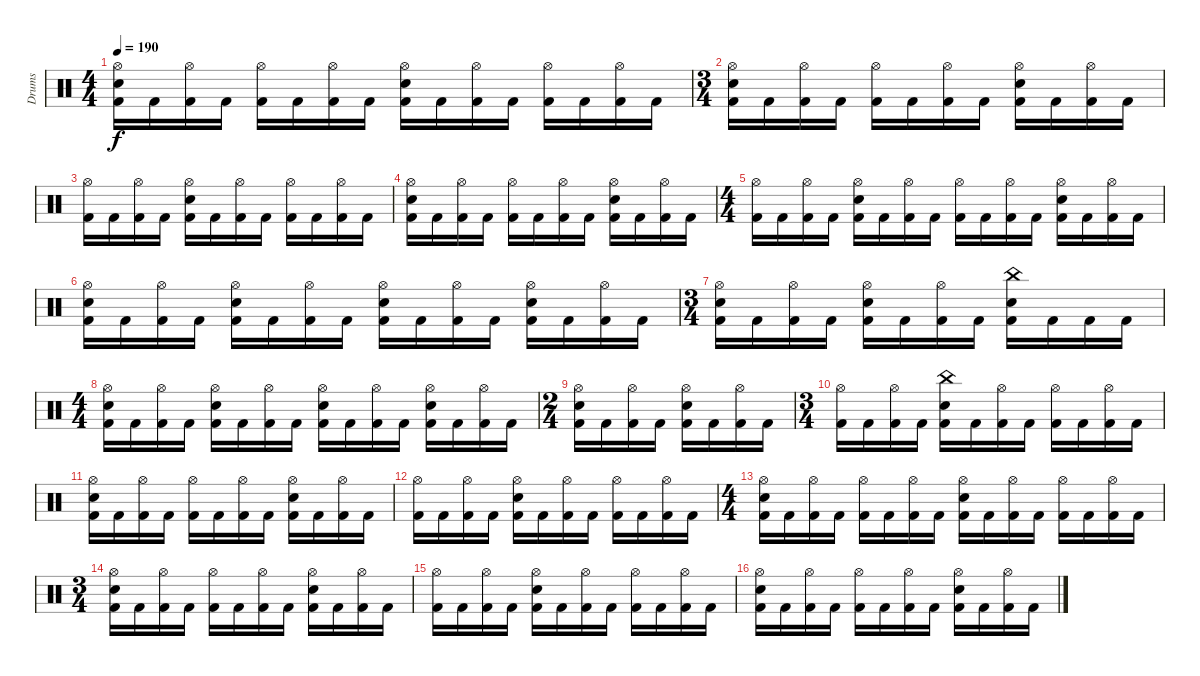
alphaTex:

\track ("Drums" "Drums") {instrument percussion}
\staff {score}
\articulation defaults
\ts (4 4)
\tempo 190
\clef neutral
\ks c
("Hi-Hat (open)" "Electric Snare (hit)" "Kick (hit) 2").16{dy f} "Kick (hit) 2".16 ("Hi-Hat (open)" "Kick (hit) 2").16 "Kick (hit) 2".16 ("Hi-Hat (open)" "Kick (hit) 2").16 "Kick (hit) 2".16 ("Hi-Hat (open)" "Kick (hit) 2").16 "Kick (hit) 2".16 ("Hi-Hat (open)" "Electric Snare (hit)" "Kick (hit) 2").16 "Kick (hit) 2".16 ("Hi-Hat (open)" "Kick (hit) 2").16 "Kick (hit) 2".16 ("Hi-Hat (open)" "Kick (hit) 2").16 "Kick (hit) 2".16 ("Hi-Hat (open)" "Kick (hit) 2").16 "Kick (hit) 2".16 |
\ts (3 4)
("Hi-Hat (open)" "Electric Snare (hit)" "Kick (hit) 2").16 "Kick (hit) 2".16 ("Hi-Hat (open)" "Kick (hit) 2").16 "Kick (hit) 2".16 ("Hi-Hat (open)" "Kick (hit) 2").16 "Kick (hit) 2".16 ("Hi-Hat (open)" "Kick (hit) 2").16 "Kick (hit) 2".16 ("Hi-Hat (open)" "Electric Snare (hit)" "Kick (hit) 2").16 "Kick (hit) 2".16 ("Hi-Hat (open)" "Kick (hit) 2").16 "Kick (hit) 2".16 |
("Hi-Hat (open)" "Kick (hit) 2").16 "Kick (hit) 2".16 ("Hi-Hat (open)" "Kick (hit) 2").16 "Kick (hit) 2".16 ("Hi-Hat (open)" "Electric Snare (hit)" "Kick (hit) 2").16 "Kick (hit) 2".16 ("Hi-Hat (open)" "Kick (hit) 2").16 "Kick (hit) 2".16 ("Hi-Hat (open)" "Kick (hit) 2").16 "Kick (hit) 2".16 ("Hi-Hat (open)" "Kick (hit) 2").16 "Kick (hit) 2".16 |
("Hi-Hat (open)" "Electric Snare (hit)" "Kick (hit) 2").16 "Kick (hit) 2".16 ("Hi-Hat (open)" "Kick (hit) 2").16 "Kick (hit) 2".16 ("Hi-Hat (open)" "Kick (hit) 2").16 "Kick (hit) 2".16 ("Hi-Hat (open)" "Kick (hit) 2").16 "Kick (hit) 2".16 ("Hi-Hat (open)" "Electric Snare (hit)" "Kick (hit) 2").16 "Kick (hit) 2".16 ("Hi-Hat (open)" "Kick (hit) 2").16 "Kick (hit) 2".16 |
\ts (4 4)
("Hi-Hat (open)" "Kick (hit) 2").16 "Kick (hit) 2".16 ("Hi-Hat (open)" "Kick (hit) 2").16 "Kick (hit) 2".16 ("Hi-Hat (open)" "Electric Snare (hit)" "Kick (hit) 2").16 "Kick (hit) 2".16 ("Hi-Hat (open)" "Kick (hit) 2").16 "Kick (hit) 2".16 ("Hi-Hat (open)" "Kick (hit) 2").16 "Kick (hit) 2".16 ("Hi-Hat (open)" "Kick (hit) 2").16 "Kick (hit) 2".16 ("Hi-Hat (open)" "Electric Snare (hit)" "Kick (hit) 2").16 "Kick (hit) 2".16 ("Hi-Hat (open)" "Kick (hit) 2").16 "Kick (hit) 2".16 |
("Hi-Hat (open)" "Electric Snare (hit)" "Kick (hit) 2").16 "Kick (hit) 2".16 ("Hi-Hat (open)" "Kick (hit) 2").16 "Kick (hit) 2".16 ("Hi-Hat (open)" "Electric Snare (hit)" "Kick (hit) 2").16 "Kick (hit) 2".16 ("Hi-Hat (open)" "Kick (hit) 2").16 "Kick (hit) 2".16 ("Hi-Hat (open)" "Electric Snare (hit)" "Kick (hit) 2").16 "Kick (hit) 2".16 ("Hi-Hat (open)" "Kick (hit) 2").16 "Kick (hit) 2".16 ("Hi-Hat (open)" "Electric Snare (hit)" "Kick (hit) 2").16 "Kick (hit) 2".16 ("Hi-Hat (open)" "Kick (hit) 2").16 "Kick (hit) 2".16 |
\ts (3 4)
("Hi-Hat (open)" "Electric Snare (hit)" "Kick (hit) 2").16 "Kick (hit) 2".16 ("Hi-Hat (open)" "Kick (hit) 2").16 "Kick (hit) 2".16 ("Hi-Hat (open)" "Electric Snare (hit)" "Kick (hit) 2").16 "Kick (hit) 2".16 ("Hi-Hat (open)" "Kick (hit) 2").16 "Kick (hit) 2".16 ("China (hit)" "Electric Snare (hit)" "Kick (hit) 2").16 "Kick (hit) 2".16 "Kick (hit) 2".16 "Kick (hit) 2".16 |
\ts (4 4)
("Hi-Hat (open)" "Electric Snare (hit)" "Kick (hit) 2").16 "Kick (hit) 2".16 ("Hi-Hat (open)" "Kick (hit) 2").16 "Kick (hit) 2".16 ("Hi-Hat (open)" "Electric Snare (hit)" "Kick (hit) 2").16 "Kick (hit) 2".16 ("Hi-Hat (open)" "Kick (hit) 2").16 "Kick (hit) 2".16 ("Hi-Hat (open)" "Electric Snare (hit)" "Kick (hit) 2").16 "Kick (hit) 2".16 ("Hi-Hat (open)" "Kick (hit) 2").16 "Kick (hit) 2".16 ("Hi-Hat (open)" "Electric Snare (hit)" "Kick (hit) 2").16 "Kick (hit) 2".16 ("Hi-Hat (open)" "Kick (hit) 2").16 "Kick (hit) 2".16 |
\ts (2 4)
("Hi-Hat (open)" "Electric Snare (hit)" "Kick (hit) 2").16 "Kick (hit) 2".16 ("Hi-Hat (open)" "Kick (hit) 2").16 "Kick (hit) 2".16 ("Hi-Hat (open)" "Electric Snare (hit)" "Kick (hit) 2").16 "Kick (hit) 2".16 ("Hi-Hat (open)" "Kick (hit) 2").16 "Kick (hit) 2".16 |
\ts (3 4)
("Hi-Hat (open)" "Kick (hit) 2").16 "Kick (hit) 2".16 ("Hi-Hat (open)" "Kick (hit) 2").16 "Kick (hit) 2".16 ("China (hit)" "Electric Snare (hit)" "Kick (hit) 2").16 "Kick (hit) 2".16 ("Hi-Hat (open)" "Kick (hit) 2").16 "Kick (hit) 2".16 ("Hi-Hat (open)" "Kick (hit) 2").16 "Kick (hit) 2".16 ("Hi-Hat (open)" "Kick (hit) 2").16 "Kick (hit) 2".16 |
("Hi-Hat (open)" "Electric Snare (hit)" "Kick (hit) 2").16 "Kick (hit) 2".16 ("Hi-Hat (open)" "Kick (hit) 2").16 "Kick (hit) 2".16 ("Hi-Hat (open)" "Kick (hit) 2").16 "Kick (hit) 2".16 ("Hi-Hat (open)" "Kick (hit) 2").16 "Kick (hit) 2".16 ("Hi-Hat (open)" "Electric Snare (hit)" "Kick (hit) 2").16 "Kick (hit) 2".16 ("Hi-Hat (open)" "Kick (hit) 2").16 "Kick (hit) 2".16 |
("Hi-Hat (open)" "Kick (hit) 2").16 "Kick (hit) 2".16 ("Hi-Hat (open)" "Kick (hit) 2").16 "Kick (hit) 2".16 ("Hi-Hat (open)" "Electric Snare (hit)" "Kick (hit) 2").16 "Kick (hit) 2".16 ("Hi-Hat (open)" "Kick (hit) 2").16 "Kick (hit) 2".16 ("Hi-Hat (open)" "Kick (hit) 2").16 "Kick (hit) 2".16 ("Hi-Hat (open)" "Kick (hit) 2").16 "Kick (hit) 2".16 |
\ts (4 4)
("Hi-Hat (open)" "Electric Snare (hit)" "Kick (hit) 2").16 "Kick (hit) 2".16 ("Hi-Hat (open)" "Kick (hit) 2").16 "Kick (hit) 2".16 ("Hi-Hat (open)" "Kick (hit) 2").16 "Kick (hit) 2".16 ("Hi-Hat (open)" "Kick (hit) 2").16 "Kick (hit) 2".16 ("Hi-Hat (open)" "Electric Snare (hit)" "Kick (hit) 2").16 "Kick (hit) 2".16 ("Hi-Hat (open)" "Kick (hit) 2").16 "Kick (hit) 2".16 ("Hi-Hat (open)" "Kick (hit) 2").16 "Kick (hit) 2".16 ("Hi-Hat (open)" "Kick (hit) 2").16 "Kick (hit) 2".16 |
\ts (3 4)
("Hi-Hat (open)" "Electric Snare (hit)" "Kick (hit) 2").16 "Kick (hit) 2".16 ("Hi-Hat (open)" "Kick (hit) 2").16 "Kick (hit) 2".16 ("Hi-Hat (open)" "Kick (hit) 2").16 "Kick (hit) 2".16 ("Hi-Hat (open)" "Kick (hit) 2").16 "Kick (hit) 2".16 ("Hi-Hat (open)" "Electric Snare (hit)" "Kick (hit) 2").16 "Kick (hit) 2".16 ("Hi-Hat (open)" "Kick (hit) 2").16 "Kick (hit) 2".16 |
("Hi-Hat (open)" "Kick (hit) 2").16 "Kick (hit) 2".16 ("Hi-Hat (open)" "Kick (hit) 2").16 "Kick (hit) 2".16 ("Hi-Hat (open)" "Electric Snare (hit)" "Kick (hit) 2").16 "Kick (hit) 2".16 ("Hi-Hat (open)" "Kick (hit) 2").16 "Kick (hit) 2".16 ("Hi-Hat (open)" "Kick (hit) 2").16 "Kick (hit) 2".16 ("Hi-Hat (open)" "Kick (hit) 2").16 "Kick (hit) 2".16 |
("Hi-Hat (open)" "Electric Snare (hit)" "Kick (hit) 2").16 "Kick (hit) 2".16 ("Hi-Hat (open)" "Kick (hit) 2").16 "Kick (hit) 2".16 ("Hi-Hat (open)" "Kick (hit) 2").16 "Kick (hit) 2".16 ("Hi-Hat (open)" "Kick (hit) 2").16 "Kick (hit) 2".16 ("Hi-Hat (open)" "Electric Snare (hit)" "Kick (hit) 2").16 "Kick (hit) 2".16 ("Hi-Hat (open)" "Kick (hit) 2").16 "Kick (hit) 2".16
